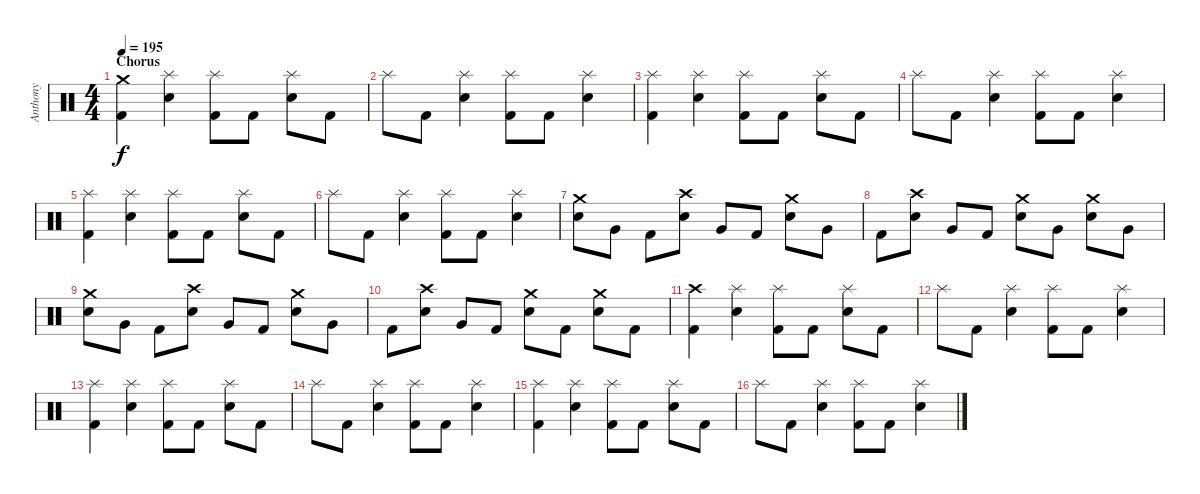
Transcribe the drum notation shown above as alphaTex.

\track ("Anthony" "Anthony") {instrument percussion}
\staff {score}
\articulation defaults
\ts (4 4)
\section ("" "Chorus")
\tempo 195
\clef neutral
\ks c
("Crash medium (hit)" "Kick (hit) 2").4{dy f} ("Splash (hit)" "Electric Snare (hit)").4 ("Splash (hit)" "Kick (hit) 2").8 "Kick (hit) 2".8 ("Splash (hit)" "Electric Snare (hit)").8 "Kick (hit) 2".8 |
"Splash (hit)".8 "Kick (hit) 2".8 ("Splash (hit)" "Electric Snare (hit)").4 ("Splash (hit)" "Kick (hit) 2").8 "Kick (hit) 2".8 ("Splash (hit)" "Electric Snare (hit)").4 |
("Splash (hit)" "Kick (hit) 2").4 ("Splash (hit)" "Electric Snare (hit)").4 ("Splash (hit)" "Kick (hit) 2").8 "Kick (hit) 2".8 ("Splash (hit)" "Electric Snare (hit)").8 "Kick (hit) 2".8 |
"Splash (hit)".8 "Kick (hit) 2".8 ("Splash (hit)" "Electric Snare (hit)").4 ("Splash (hit)" "Kick (hit) 2").8 "Kick (hit) 2".8 ("Splash (hit)" "Electric Snare (hit)").4 |
("Splash (hit)" "Kick (hit) 2").4 ("Splash (hit)" "Electric Snare (hit)").4 ("Splash (hit)" "Kick (hit) 2").8 "Kick (hit) 2".8 ("Splash (hit)" "Electric Snare (hit)").8 "Kick (hit) 2".8 |
"Splash (hit)".8 "Kick (hit) 2".8 ("Splash (hit)" "Electric Snare (hit)").4 ("Splash (hit)" "Kick (hit) 2").8 "Kick (hit) 2".8 ("Splash (hit)" "Electric Snare (hit)").4 |
("Crash medium (hit)" "Electric Snare (hit)").8 "Very Low Tom (hit)".8 "Kick (hit) 2".8 ("Crash high (hit)" "Electric Snare (hit)").8 "Very Low Tom (hit)".8 "Kick (hit) 2".8 ("Crash medium (hit)" "Electric Snare (hit)").8 "Very Low Tom (hit)".8 |
"Kick (hit) 2".8 ("Crash high (hit)" "Electric Snare (hit)").8 "Very Low Tom (hit)".8 "Kick (hit) 2".8 ("Crash medium (hit)" "Electric Snare (hit)").8 "Very Low Tom (hit)".8 ("Crash medium (hit)" "Electric Snare (hit)").8 "Very Low Tom (hit)".8 |
("Crash medium (hit)" "Electric Snare (hit)").8 "Very Low Tom (hit)".8 "Kick (hit) 2".8 ("Crash high (hit)" "Electric Snare (hit)").8 "Very Low Tom (hit)".8 "Kick (hit) 2".8 ("Crash medium (hit)" "Electric Snare (hit)").8 "Very Low Tom (hit)".8 |
"Kick (hit) 2".8 ("Crash high (hit)" "Electric Snare (hit)").8 "Very Low Tom (hit)".8 "Kick (hit) 2".8 ("Crash medium (hit)" "Electric Snare (hit)").8 "Kick (hit) 2".8 ("Crash medium (hit)" "Electric Snare (hit)").8 "Kick (hit) 2".8 |
("Crash high (hit)" "Kick (hit) 2").4 ("Splash (hit)" "Electric Snare (hit)").4 ("Splash (hit)" "Kick (hit) 2").8 "Kick (hit) 2".8 ("Splash (hit)" "Electric Snare (hit)").8 "Kick (hit) 2".8 |
"Splash (hit)".8 "Kick (hit) 2".8 ("Splash (hit)" "Electric Snare (hit)").4 ("Splash (hit)" "Kick (hit) 2").8 "Kick (hit) 2".8 ("Splash (hit)" "Electric Snare (hit)").4 |
("Splash (hit)" "Kick (hit) 2").4 ("Splash (hit)" "Electric Snare (hit)").4 ("Splash (hit)" "Kick (hit) 2").8 "Kick (hit) 2".8 ("Splash (hit)" "Electric Snare (hit)").8 "Kick (hit) 2".8 |
"Splash (hit)".8 "Kick (hit) 2".8 ("Splash (hit)" "Electric Snare (hit)").4 ("Splash (hit)" "Kick (hit) 2").8 "Kick (hit) 2".8 ("Splash (hit)" "Electric Snare (hit)").4 |
("Splash (hit)" "Kick (hit) 2").4 ("Splash (hit)" "Electric Snare (hit)").4 ("Splash (hit)" "Kick (hit) 2").8 "Kick (hit) 2".8 ("Splash (hit)" "Electric Snare (hit)").8 "Kick (hit) 2".8 |
"Splash (hit)".8 "Kick (hit) 2".8 ("Splash (hit)" "Electric Snare (hit)").4 ("Splash (hit)" "Kick (hit) 2").8 "Kick (hit) 2".8 ("Splash (hit)" "Electric Snare (hit)").4
